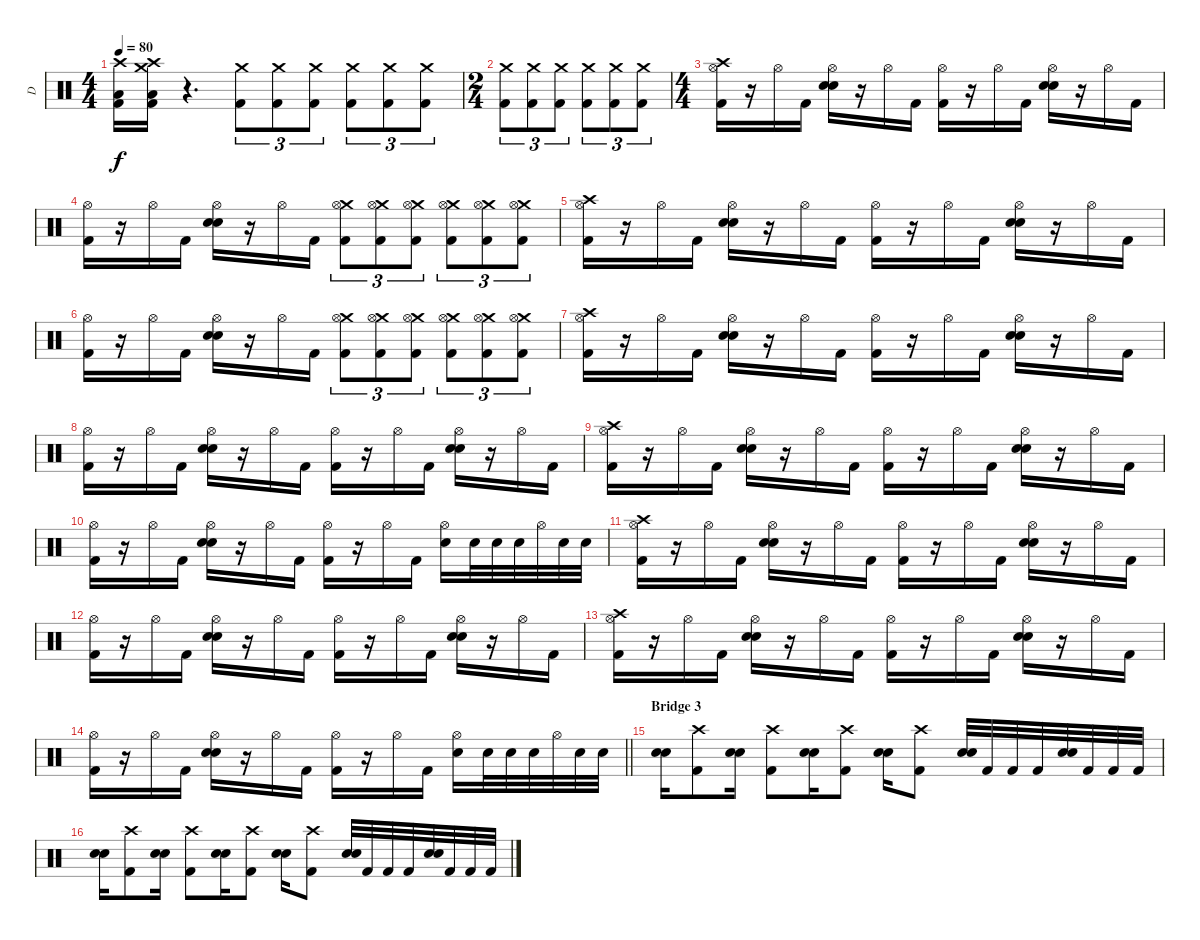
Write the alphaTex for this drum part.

\track ("D" "D") {instrument percussion}
\staff {score}
\articulation defaults
\ts (4 4)
\tempo 80
\clef neutral
\ks c
("Crash high (hit)" "Low Tom (hit)" "Kick (hit) 2").16{dy f} ("Crash high (hit)" "Crash medium (hit)" "Low Tom (hit)" "Kick (hit) 2").16 r.4{d} ("Crash medium (hit)" "Kick (hit) 2").8{tu (3 2)} ("Crash medium (hit)" "Kick (hit) 2").8{tu (3 2)} ("Crash medium (hit)" "Kick (hit) 2").8{tu (3 2)} ("Crash medium (hit)" "Kick (hit) 2").8{tu (3 2)} ("Crash medium (hit)" "Kick (hit) 2").8{tu (3 2)} ("Crash medium (hit)" "Kick (hit) 2").8{tu (3 2)} |
\ts (2 4)
("Crash medium (hit)" "Kick (hit) 2").8{tu (3 2)} ("Crash medium (hit)" "Kick (hit) 2").8{tu (3 2)} ("Crash medium (hit)" "Kick (hit) 2").8{tu (3 2)} ("Crash medium (hit)" "Kick (hit) 2").8{tu (3 2)} ("Crash medium (hit)" "Kick (hit) 2").8{tu (3 2)} ("Crash medium (hit)" "Kick (hit) 2").8{tu (3 2)} |
\ts (4 4)
("Crash high (hit)" "Kick (hit) 2" "Hi-Hat (open)").16 r.16 "Hi-Hat (open)".16 "Kick (hit) 2".16 ("Electric Snare (hit)" "Electric Snare (hit)" "Hi-Hat (open)").16 r.16 "Hi-Hat (open)".16 "Kick (hit) 2".16 ("Kick (hit) 2" "Hi-Hat (open)").16 r.16 "Hi-Hat (open)".16 "Kick (hit) 2".16 ("Electric Snare (hit)" "Electric Snare (hit)" "Hi-Hat (open)").16 r.16 "Hi-Hat (open)".16 "Kick (hit) 2".16 |
("Kick (hit) 2" "Hi-Hat (open)").16 r.16 "Hi-Hat (open)".16 "Kick (hit) 2".16 ("Electric Snare (hit)" "Electric Snare (hit)" "Hi-Hat (open)").16 r.16 "Hi-Hat (open)".16 "Kick (hit) 2".16 ("Crash medium (hit)" "Kick (hit) 2" "Hi-Hat (open)").8{tu (3 2)} ("Crash medium (hit)" "Kick (hit) 2" "Hi-Hat (open)").8{tu (3 2)} ("Crash medium (hit)" "Kick (hit) 2" "Hi-Hat (open)").8{tu (3 2)} ("Crash medium (hit)" "Kick (hit) 2" "Hi-Hat (open)").8{tu (3 2)} ("Crash medium (hit)" "Kick (hit) 2" "Hi-Hat (open)").8{tu (3 2)} ("Crash medium (hit)" "Kick (hit) 2" "Hi-Hat (open)").8{tu (3 2)} |
("Crash high (hit)" "Kick (hit) 2" "Hi-Hat (open)").16 r.16 "Hi-Hat (open)".16 "Kick (hit) 2".16 ("Electric Snare (hit)" "Electric Snare (hit)" "Hi-Hat (open)").16 r.16 "Hi-Hat (open)".16 "Kick (hit) 2".16 ("Kick (hit) 2" "Hi-Hat (open)").16 r.16 "Hi-Hat (open)".16 "Kick (hit) 2".16 ("Electric Snare (hit)" "Electric Snare (hit)" "Hi-Hat (open)").16 r.16 "Hi-Hat (open)".16 "Kick (hit) 2".16 |
("Kick (hit) 2" "Hi-Hat (open)").16 r.16 "Hi-Hat (open)".16 "Kick (hit) 2".16 ("Electric Snare (hit)" "Electric Snare (hit)" "Hi-Hat (open)").16 r.16 "Hi-Hat (open)".16 "Kick (hit) 2".16 ("Crash medium (hit)" "Kick (hit) 2" "Hi-Hat (open)").8{tu (3 2)} ("Crash medium (hit)" "Kick (hit) 2" "Hi-Hat (open)").8{tu (3 2)} ("Crash medium (hit)" "Kick (hit) 2" "Hi-Hat (open)").8{tu (3 2)} ("Crash medium (hit)" "Kick (hit) 2" "Hi-Hat (open)").8{tu (3 2)} ("Crash medium (hit)" "Kick (hit) 2" "Hi-Hat (open)").8{tu (3 2)} ("Crash medium (hit)" "Kick (hit) 2" "Hi-Hat (open)").8{tu (3 2)} |
("Crash high (hit)" "Kick (hit) 2" "Hi-Hat (open)").16 r.16 "Hi-Hat (open)".16 "Kick (hit) 2".16 ("Electric Snare (hit)" "Electric Snare (hit)" "Hi-Hat (open)").16 r.16 "Hi-Hat (open)".16 "Kick (hit) 2".16 ("Kick (hit) 2" "Hi-Hat (open)").16 r.16 "Hi-Hat (open)".16 "Kick (hit) 2".16 ("Electric Snare (hit)" "Electric Snare (hit)" "Hi-Hat (open)").16 r.16 "Hi-Hat (open)".16 "Kick (hit) 2".16 |
("Kick (hit) 2" "Hi-Hat (open)").16 r.16 "Hi-Hat (open)".16 "Kick (hit) 2".16 ("Electric Snare (hit)" "Electric Snare (hit)" "Hi-Hat (open)").16 r.16 "Hi-Hat (open)".16 "Kick (hit) 2".16 ("Kick (hit) 2" "Hi-Hat (open)").16 r.16 "Hi-Hat (open)".16 "Kick (hit) 2".16 ("Electric Snare (hit)" "Electric Snare (hit)" "Hi-Hat (open)").16 r.16 "Hi-Hat (open)".16 "Kick (hit) 2".16 |
("Crash high (hit)" "Kick (hit) 2" "Hi-Hat (open)").16 r.16 "Hi-Hat (open)".16 "Kick (hit) 2".16 ("Electric Snare (hit)" "Electric Snare (hit)" "Hi-Hat (open)").16 r.16 "Hi-Hat (open)".16 "Kick (hit) 2".16 ("Kick (hit) 2" "Hi-Hat (open)").16 r.16 "Hi-Hat (open)".16 "Kick (hit) 2".16 ("Electric Snare (hit)" "Electric Snare (hit)" "Hi-Hat (open)").16 r.16 "Hi-Hat (open)".16 "Kick (hit) 2".16 |
("Kick (hit) 2" "Hi-Hat (open)").16 r.16 "Hi-Hat (open)".16 "Kick (hit) 2".16 ("Electric Snare (hit)" "Electric Snare (hit)" "Hi-Hat (open)").16 r.16 "Hi-Hat (open)".16 "Kick (hit) 2".16 ("Kick (hit) 2" "Hi-Hat (open)").16 r.16 "Hi-Hat (open)".16 "Kick (hit) 2".16 ("Electric Snare (hit)" "Hi-Hat (open)").16 "Electric Snare (hit)".32 "Electric Snare (hit)".32 "Electric Snare (hit)".32 "Hi-Hat (open)".32 "Electric Snare (hit)".32 "Electric Snare (hit)".32 |
("Crash high (hit)" "Kick (hit) 2" "Hi-Hat (open)").16 r.16 "Hi-Hat (open)".16 "Kick (hit) 2".16 ("Electric Snare (hit)" "Electric Snare (hit)" "Hi-Hat (open)").16 r.16 "Hi-Hat (open)".16 "Kick (hit) 2".16 ("Kick (hit) 2" "Hi-Hat (open)").16 r.16 "Hi-Hat (open)".16 "Kick (hit) 2".16 ("Electric Snare (hit)" "Electric Snare (hit)" "Hi-Hat (open)").16 r.16 "Hi-Hat (open)".16 "Kick (hit) 2".16 |
("Kick (hit) 2" "Hi-Hat (open)").16 r.16 "Hi-Hat (open)".16 "Kick (hit) 2".16 ("Electric Snare (hit)" "Electric Snare (hit)" "Hi-Hat (open)").16 r.16 "Hi-Hat (open)".16 "Kick (hit) 2".16 ("Kick (hit) 2" "Hi-Hat (open)").16 r.16 "Hi-Hat (open)".16 "Kick (hit) 2".16 ("Electric Snare (hit)" "Electric Snare (hit)" "Hi-Hat (open)").16 r.16 "Hi-Hat (open)".16 "Kick (hit) 2".16 |
("Crash high (hit)" "Kick (hit) 2" "Hi-Hat (open)").16 r.16 "Hi-Hat (open)".16 "Kick (hit) 2".16 ("Electric Snare (hit)" "Electric Snare (hit)" "Hi-Hat (open)").16 r.16 "Hi-Hat (open)".16 "Kick (hit) 2".16 ("Kick (hit) 2" "Hi-Hat (open)").16 r.16 "Hi-Hat (open)".16 "Kick (hit) 2".16 ("Electric Snare (hit)" "Electric Snare (hit)" "Hi-Hat (open)").16 r.16 "Hi-Hat (open)".16 "Kick (hit) 2".16 |
\barLineRight lightlight
("Kick (hit) 2" "Hi-Hat (open)").16 r.16 "Hi-Hat (open)".16 "Kick (hit) 2".16 ("Electric Snare (hit)" "Electric Snare (hit)" "Hi-Hat (open)").16 r.16 "Hi-Hat (open)".16 "Kick (hit) 2".16 ("Kick (hit) 2" "Hi-Hat (open)").16 r.16 "Hi-Hat (open)".16 "Kick (hit) 2".16 ("Electric Snare (hit)" "Hi-Hat (open)").16 "Electric Snare (hit)".32 "Electric Snare (hit)".32 "Electric Snare (hit)".32 "Hi-Hat (open)".32 "Electric Snare (hit)".32 "Electric Snare (hit)".32 |
\section ("" "Bridge 3")
("Electric Snare (hit)" "Electric Snare (hit)").16 ("Crash high (hit)" "Kick (hit) 2").8 ("Electric Snare (hit)" "Electric Snare (hit)").16 ("Crash high (hit)" "Kick (hit) 2").8 ("Electric Snare (hit)" "Electric Snare (hit)").16 ("Crash high (hit)" "Kick (hit) 2").8 ("Electric Snare (hit)" "Electric Snare (hit)").16 ("Crash high (hit)" "Kick (hit) 2").8 ("Electric Snare (hit)" "Electric Snare (hit)").32 "Kick (hit) 2".32 "Kick (hit) 2".32 "Kick (hit) 2".32 ("Electric Snare (hit)" "Electric Snare (hit)").32 "Kick (hit) 2".32 "Kick (hit) 2".32 "Kick (hit) 2".32 |
("Electric Snare (hit)" "Electric Snare (hit)").16 ("Crash high (hit)" "Kick (hit) 2").8 ("Electric Snare (hit)" "Electric Snare (hit)").16 ("Crash high (hit)" "Kick (hit) 2").8 ("Electric Snare (hit)" "Electric Snare (hit)").16 ("Crash high (hit)" "Kick (hit) 2").8 ("Electric Snare (hit)" "Electric Snare (hit)").16 ("Crash high (hit)" "Kick (hit) 2").8 ("Electric Snare (hit)" "Electric Snare (hit)").32 "Kick (hit) 2".32 "Kick (hit) 2".32 "Kick (hit) 2".32 ("Electric Snare (hit)" "Electric Snare (hit)").32 "Kick (hit) 2".32 "Kick (hit) 2".32 "Kick (hit) 2".32
